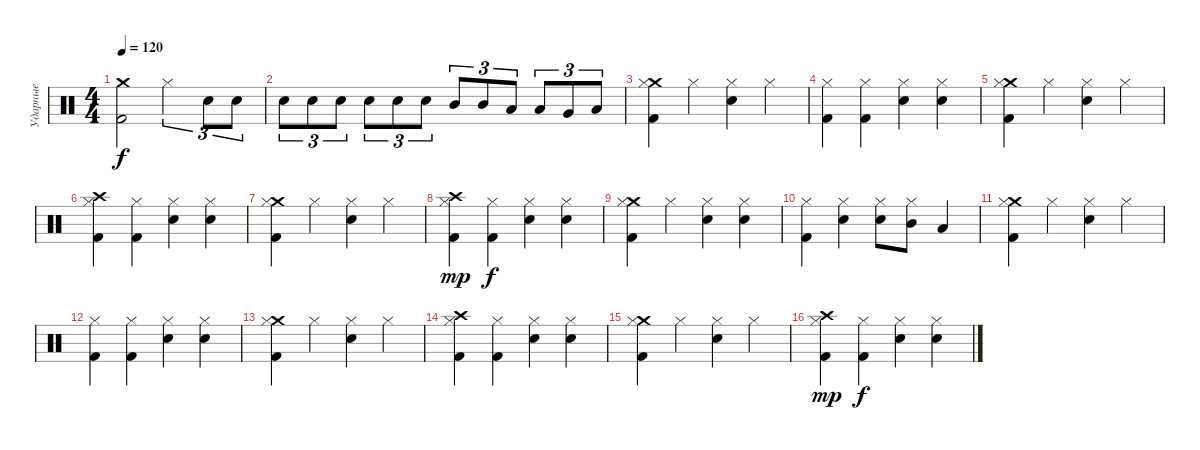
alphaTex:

\track ("Ударные" "Ударные") {instrument percussion}
\staff {score}
\articulation defaults
\ts (4 4)
\tempo 120
\clef neutral
\ks c
("Crash medium (hit)" "Kick (hit) 2").2{dy f} "Hi-Hat (closed)".2{tu (3 2)} "Snare (hit) 2".8{tu (3 2)} "Snare (hit) 2".8{tu (3 2)} |
"Snare (hit) 2".8{tu (3 2)} "Snare (hit) 2".8{tu (3 2)} "Snare (hit) 2".8{tu (3 2)} "Snare (hit) 2".8{tu (3 2)} "Snare (hit) 2".8{tu (3 2)} "Snare (hit) 2".8{tu (3 2)} "Mid Tom (hit)".8{tu (3 2)} "Mid Tom (hit)".8{tu (3 2)} "Low Tom (hit)".8{tu (3 2)} "Low Tom (hit)".8{tu (3 2)} "Very Low Tom (hit)".8{tu (3 2)} "Low Floor Tom (hit)".8{tu (3 2)} |
("Crash medium (hit)" "Hi-Hat (closed)" "Kick (hit) 2").4 "Hi-Hat (closed)".4 ("Snare (hit) 2" "Hi-Hat (closed)").4 "Hi-Hat (closed)".4 |
("Hi-Hat (closed)" "Kick (hit) 2").4 ("Hi-Hat (closed)" "Kick (hit) 2").4 ("Snare (hit) 2" "Hi-Hat (closed)").4 ("Snare (hit) 2" "Hi-Hat (closed)").4 |
("Crash medium (hit)" "Hi-Hat (closed)" "Kick (hit) 2").4 "Hi-Hat (closed)".4 ("Snare (hit) 2" "Hi-Hat (closed)").4 "Hi-Hat (closed)".4 |
("Crash high (hit)" "Hi-Hat (closed)" "Kick (hit) 2").4 ("Hi-Hat (closed)" "Kick (hit) 2").4 ("Snare (hit) 2" "Hi-Hat (closed)").4 ("Snare (hit) 2" "Hi-Hat (closed)").4 |
("Crash medium (hit)" "Hi-Hat (closed)" "Kick (hit) 2").4 "Hi-Hat (closed)".4 ("Snare (hit) 2" "Hi-Hat (closed)").4 "Hi-Hat (closed)".4 |
("Crash high (hit)" "Hi-Hat (closed)" "Kick (hit) 2").4{dy mp} ("Hi-Hat (closed)" "Kick (hit) 2").4{dy f} ("Snare (hit) 2" "Hi-Hat (closed)").4 ("Snare (hit) 2" "Hi-Hat (closed)").4 |
("Crash medium (hit)" "Hi-Hat (closed)" "Kick (hit) 2").4 "Hi-Hat (closed)".4 ("Snare (hit) 2" "Hi-Hat (closed)").4 ("Snare (hit) 2" "Hi-Hat (closed)").4 |
("Hi-Hat (closed)" "Kick (hit) 2").4 ("Snare (hit) 2" "Hi-Hat (closed)").4 ("Snare (hit) 2" "Hi-Hat (closed)").8 ("Mid Tom (hit)" "Hi-Hat (closed)").8 "Low Tom (hit)".4 |
("Crash medium (hit)" "Hi-Hat (closed)" "Kick (hit) 2").4 "Hi-Hat (closed)".4 ("Snare (hit) 2" "Hi-Hat (closed)").4 "Hi-Hat (closed)".4 |
("Hi-Hat (closed)" "Kick (hit) 2").4 ("Hi-Hat (closed)" "Kick (hit) 2").4 ("Snare (hit) 2" "Hi-Hat (closed)").4 ("Snare (hit) 2" "Hi-Hat (closed)").4 |
("Crash medium (hit)" "Hi-Hat (closed)" "Kick (hit) 2").4 "Hi-Hat (closed)".4 ("Snare (hit) 2" "Hi-Hat (closed)").4 "Hi-Hat (closed)".4 |
("Crash high (hit)" "Hi-Hat (closed)" "Kick (hit) 2").4 ("Hi-Hat (closed)" "Kick (hit) 2").4 ("Snare (hit) 2" "Hi-Hat (closed)").4 ("Snare (hit) 2" "Hi-Hat (closed)").4 |
("Crash medium (hit)" "Hi-Hat (closed)" "Kick (hit) 2").4 "Hi-Hat (closed)".4 ("Snare (hit) 2" "Hi-Hat (closed)").4 "Hi-Hat (closed)".4 |
("Crash high (hit)" "Hi-Hat (closed)" "Kick (hit) 2").4{dy mp} ("Hi-Hat (closed)" "Kick (hit) 2").4{dy f} ("Snare (hit) 2" "Hi-Hat (closed)").4 ("Snare (hit) 2" "Hi-Hat (closed)").4
